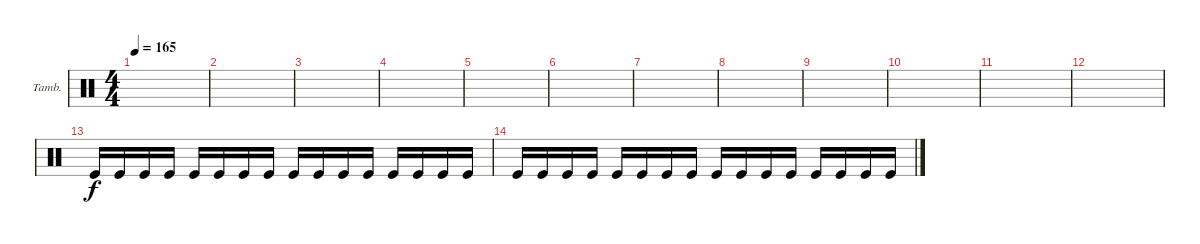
\defaultSystemsLayout 4
\bracketExtendMode groupsimilarinstruments
\firstSystemTrackNameOrientation horizontal
\otherSystemsTrackNameOrientation horizontal
\track ("Tambourine" "Tamb.") {instrument percussion}
\staff {score}
\articulation defaults
\ts (4 4)
\tempo 165
\clef neutral
\ks c
|
|
|
|
|
|
|
|
|
|
|
|
"Kick (hit)".16 "Kick (hit)".16 "Kick (hit)".16 "Kick (hit)".16 "Kick (hit)".16 "Kick (hit)".16 "Kick (hit)".16 "Kick (hit)".16 "Kick (hit)".16 "Kick (hit)".16 "Kick (hit)".16 "Kick (hit)".16 "Kick (hit)".16 "Kick (hit)".16 "Kick (hit)".16 "Kick (hit)".16 |
"Kick (hit)".16 "Kick (hit)".16 "Kick (hit)".16 "Kick (hit)".16 "Kick (hit)".16 "Kick (hit)".16 "Kick (hit)".16 "Kick (hit)".16 "Kick (hit)".16 "Kick (hit)".16 "Kick (hit)".16 "Kick (hit)".16 "Kick (hit)".16 "Kick (hit)".16 "Kick (hit)".16 "Kick (hit)".16
